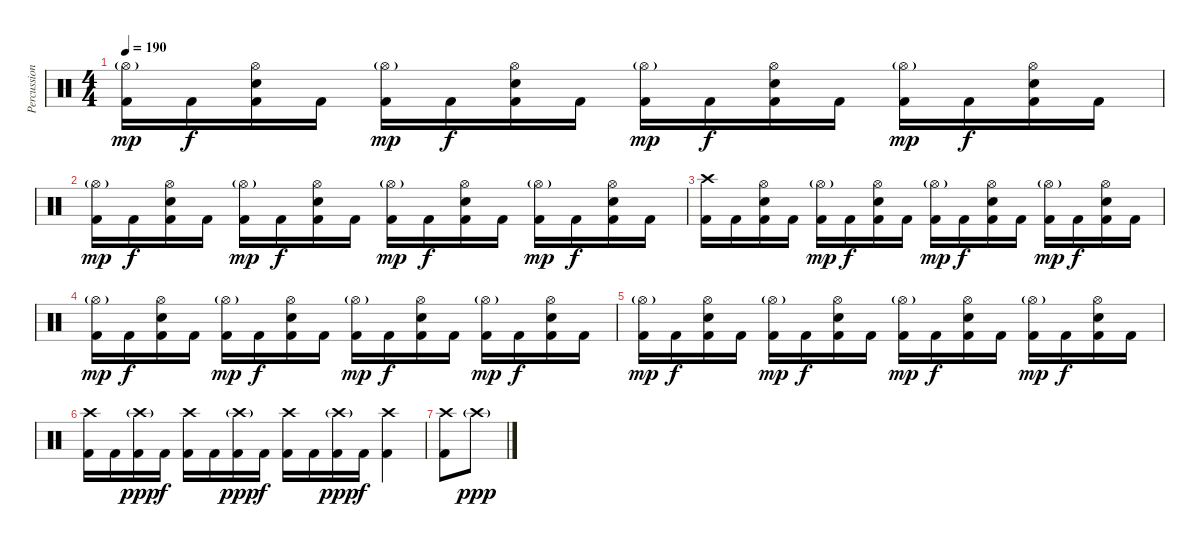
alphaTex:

\track ("Percussion" "Percussion") {instrument percussion}
\staff {score}
\articulation defaults
\ts (4 4)
\tempo 190
\clef neutral
\ks c
("Hi-Hat (open)"{g} "Kick (hit) 2").16{dy mp} "Kick (hit) 2".16{dy f} ("Hi-Hat (open)" "Electric Snare (hit)" "Kick (hit) 2").16 "Kick (hit) 2".16 ("Hi-Hat (open)"{g} "Kick (hit) 2").16{dy mp} "Kick (hit) 2".16{dy f} ("Hi-Hat (open)" "Electric Snare (hit)" "Kick (hit) 2").16 "Kick (hit) 2".16 ("Hi-Hat (open)"{g} "Kick (hit) 2").16{dy mp} "Kick (hit) 2".16{dy f} ("Hi-Hat (open)" "Electric Snare (hit)" "Kick (hit) 2").16 "Kick (hit) 2".16 ("Hi-Hat (open)"{g} "Kick (hit) 2").16{dy mp} "Kick (hit) 2".16{dy f} ("Hi-Hat (open)" "Electric Snare (hit)" "Kick (hit) 2").16 "Kick (hit) 2".16 |
("Hi-Hat (open)"{g} "Kick (hit) 2").16{dy mp} "Kick (hit) 2".16{dy f} ("Hi-Hat (open)" "Electric Snare (hit)" "Kick (hit) 2").16 "Kick (hit) 2".16 ("Hi-Hat (open)"{g} "Kick (hit) 2").16{dy mp} "Kick (hit) 2".16{dy f} ("Hi-Hat (open)" "Electric Snare (hit)" "Kick (hit) 2").16 "Kick (hit) 2".16 ("Hi-Hat (open)"{g} "Kick (hit) 2").16{dy mp} "Kick (hit) 2".16{dy f} ("Hi-Hat (open)" "Electric Snare (hit)" "Kick (hit) 2").16 "Kick (hit) 2".16 ("Hi-Hat (open)"{g} "Kick (hit) 2").16{dy mp} "Kick (hit) 2".16{dy f} ("Hi-Hat (open)" "Electric Snare (hit)" "Kick (hit) 2").16 "Kick (hit) 2".16 |
("Crash high (hit)" "Kick (hit) 2").16 "Kick (hit) 2".16 ("Hi-Hat (open)" "Electric Snare (hit)" "Kick (hit) 2").16 "Kick (hit) 2".16 ("Hi-Hat (open)"{g} "Kick (hit) 2").16{dy mp} "Kick (hit) 2".16{dy f} ("Hi-Hat (open)" "Electric Snare (hit)" "Kick (hit) 2").16 "Kick (hit) 2".16 ("Hi-Hat (open)"{g} "Kick (hit) 2").16{dy mp} "Kick (hit) 2".16{dy f} ("Hi-Hat (open)" "Electric Snare (hit)" "Kick (hit) 2").16 "Kick (hit) 2".16 ("Hi-Hat (open)"{g} "Kick (hit) 2").16{dy mp} "Kick (hit) 2".16{dy f} ("Hi-Hat (open)" "Electric Snare (hit)" "Kick (hit) 2").16 "Kick (hit) 2".16 |
("Hi-Hat (open)"{g} "Kick (hit) 2").16{dy mp} "Kick (hit) 2".16{dy f} ("Hi-Hat (open)" "Electric Snare (hit)" "Kick (hit) 2").16 "Kick (hit) 2".16 ("Hi-Hat (open)"{g} "Kick (hit) 2").16{dy mp} "Kick (hit) 2".16{dy f} ("Hi-Hat (open)" "Electric Snare (hit)" "Kick (hit) 2").16 "Kick (hit) 2".16 ("Hi-Hat (open)"{g} "Kick (hit) 2").16{dy mp} "Kick (hit) 2".16{dy f} ("Hi-Hat (open)" "Electric Snare (hit)" "Kick (hit) 2").16 "Kick (hit) 2".16 ("Hi-Hat (open)"{g} "Kick (hit) 2").16{dy mp} "Kick (hit) 2".16{dy f} ("Hi-Hat (open)" "Electric Snare (hit)" "Kick (hit) 2").16 "Kick (hit) 2".16 |
("Hi-Hat (open)"{g} "Kick (hit) 2").16{dy mp} "Kick (hit) 2".16{dy f} ("Hi-Hat (open)" "Electric Snare (hit)" "Kick (hit) 2").16 "Kick (hit) 2".16 ("Hi-Hat (open)"{g} "Kick (hit) 2").16{dy mp} "Kick (hit) 2".16{dy f} ("Hi-Hat (open)" "Electric Snare (hit)" "Kick (hit) 2").16 "Kick (hit) 2".16 ("Hi-Hat (open)"{g} "Kick (hit) 2").16{dy mp} "Kick (hit) 2".16{dy f} ("Hi-Hat (open)" "Electric Snare (hit)" "Kick (hit) 2").16 "Kick (hit) 2".16 ("Hi-Hat (open)"{g} "Kick (hit) 2").16{dy mp} "Kick (hit) 2".16{dy f} ("Hi-Hat (open)" "Electric Snare (hit)" "Kick (hit) 2").16 "Kick (hit) 2".16 |
("Crash high (hit)" "Kick (hit) 2").16 "Kick (hit) 2".16 ("Crash high (hit)"{g} "Kick (hit) 2").16{dy ppp} "Kick (hit) 2".16{dy f} ("Crash high (hit)" "Kick (hit) 2").16 "Kick (hit) 2".16 ("Crash high (hit)"{g} "Kick (hit) 2").16{dy ppp} "Kick (hit) 2".16{dy f} ("Crash high (hit)" "Kick (hit) 2").16 "Kick (hit) 2".16 ("Crash high (hit)"{g} "Kick (hit) 2").16{dy ppp} "Kick (hit) 2".16{dy f} ("Crash high (hit)" "Kick (hit) 2").4 |
("Crash high (hit)" "Kick (hit) 2").8 "Crash high (hit)"{g}.8{dy ppp}
